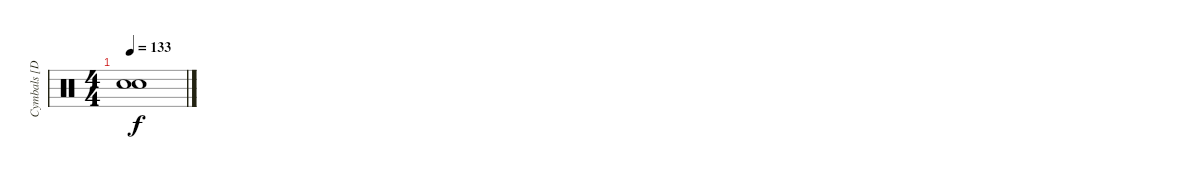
\track ("Cymbals [Dave Grohl]" "Cymbals [D") {instrument percussion}
\staff {score}
\articulation defaults
\ts (4 4)
\tempo 133
\clef neutral
\ks c
("Snare (hit)"{t} "Snare (hit)"{t}).1{dy f}
